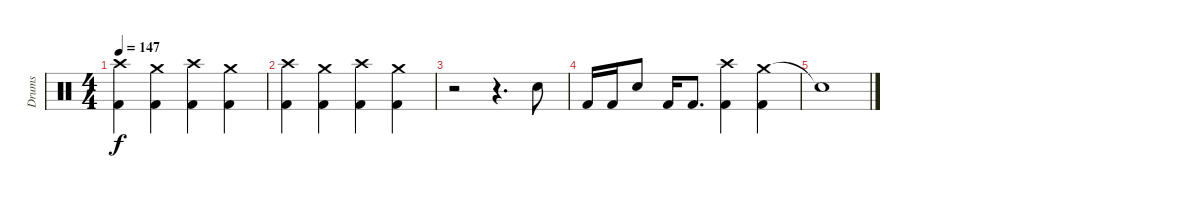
\track ("Drums" "Drums") {instrument percussion}
\staff {score}
\articulation defaults
\ts (4 4)
\tempo 147
\clef neutral
\ks c
("Crash high (hit)" "Kick (hit) 2").4{dy f} ("Crash medium (hit)" "Kick (hit) 2").4 ("Crash high (hit)" "Kick (hit) 2").4 ("Crash medium (hit)" "Kick (hit) 2").4 |
("Crash high (hit)" "Kick (hit) 2").4 ("Crash medium (hit)" "Kick (hit) 2").4 ("Crash high (hit)" "Kick (hit) 2").4 ("Crash medium (hit)" "Kick (hit) 2").4 |
r.2 r.4{d} "Snare (hit) 2".8 |
"Kick (hit) 2".16 "Kick (hit) 2".16 "Snare (hit) 2".8 "Kick (hit) 2".16 "Kick (hit) 2".8{d} ("Crash high (hit)" "Kick (hit) 2").4 ("Crash medium (hit)" "Kick (hit) 2").4 |
"Snare (hit)"{t}.1
